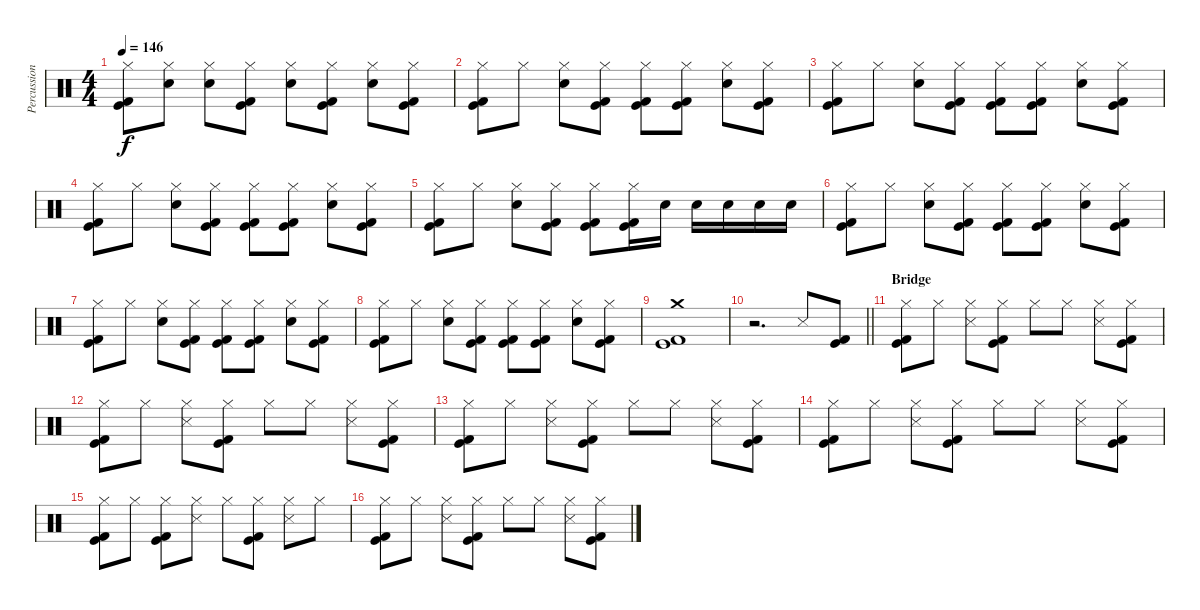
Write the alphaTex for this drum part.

\track ("Percussion" "Percussion") {instrument percussion}
\staff {score}
\articulation defaults
\ts (4 4)
\tempo 146
\clef neutral
\ks c
("Hi-Hat (closed)" "Kick (hit)" "Kick (hit) 2").8{dy f} ("Hi-Hat (closed)" "Electric Snare (hit)").8 ("Hi-Hat (closed)" "Electric Snare (hit)").8 ("Hi-Hat (closed)" "Kick (hit)" "Kick (hit) 2").8 ("Hi-Hat (closed)" "Electric Snare (hit)").8 ("Hi-Hat (closed)" "Kick (hit)" "Kick (hit) 2").8 ("Hi-Hat (closed)" "Electric Snare (hit)").8 ("Hi-Hat (closed)" "Kick (hit)" "Kick (hit) 2").8 |
("Hi-Hat (closed)" "Kick (hit)" "Kick (hit) 2").8 "Hi-Hat (closed)".8 ("Hi-Hat (closed)" "Electric Snare (hit)").8 ("Hi-Hat (closed)" "Kick (hit)" "Kick (hit) 2").8 ("Hi-Hat (closed)" "Kick (hit)" "Kick (hit) 2").8 ("Hi-Hat (closed)" "Kick (hit)" "Kick (hit) 2").8 ("Hi-Hat (closed)" "Electric Snare (hit)").8 ("Hi-Hat (closed)" "Kick (hit)" "Kick (hit) 2").8 |
("Hi-Hat (closed)" "Kick (hit)" "Kick (hit) 2").8 "Hi-Hat (closed)".8 ("Hi-Hat (closed)" "Electric Snare (hit)").8 ("Hi-Hat (closed)" "Kick (hit)" "Kick (hit) 2").8 ("Hi-Hat (closed)" "Kick (hit)" "Kick (hit) 2").8 ("Hi-Hat (closed)" "Kick (hit)" "Kick (hit) 2").8 ("Hi-Hat (closed)" "Electric Snare (hit)").8 ("Hi-Hat (closed)" "Kick (hit)" "Kick (hit) 2").8 |
("Hi-Hat (closed)" "Kick (hit)" "Kick (hit) 2").8 "Hi-Hat (closed)".8 ("Hi-Hat (closed)" "Electric Snare (hit)").8 ("Hi-Hat (closed)" "Kick (hit)" "Kick (hit) 2").8 ("Hi-Hat (closed)" "Kick (hit)" "Kick (hit) 2").8 ("Hi-Hat (closed)" "Kick (hit)" "Kick (hit) 2").8 ("Hi-Hat (closed)" "Electric Snare (hit)").8 ("Hi-Hat (closed)" "Kick (hit)" "Kick (hit) 2").8 |
("Hi-Hat (closed)" "Kick (hit)" "Kick (hit) 2").8 "Hi-Hat (closed)".8 ("Hi-Hat (closed)" "Electric Snare (hit)").8 ("Hi-Hat (closed)" "Kick (hit)" "Kick (hit) 2").8 ("Hi-Hat (closed)" "Kick (hit)" "Kick (hit) 2").8 ("Hi-Hat (closed)" "Kick (hit)" "Kick (hit) 2").16 "Electric Snare (hit)".16 "Electric Snare (hit)".16 "Electric Snare (hit)".16 "Electric Snare (hit)".16 "Electric Snare (hit)".16 |
("Hi-Hat (closed)" "Kick (hit)" "Kick (hit) 2").8 "Hi-Hat (closed)".8 ("Hi-Hat (closed)" "Electric Snare (hit)").8 ("Hi-Hat (closed)" "Kick (hit)" "Kick (hit) 2").8 ("Hi-Hat (closed)" "Kick (hit)" "Kick (hit) 2").8 ("Hi-Hat (closed)" "Kick (hit)" "Kick (hit) 2").8 ("Hi-Hat (closed)" "Electric Snare (hit)").8 ("Hi-Hat (closed)" "Kick (hit)" "Kick (hit) 2").8 |
("Hi-Hat (closed)" "Kick (hit)" "Kick (hit) 2").8 "Hi-Hat (closed)".8 ("Hi-Hat (closed)" "Electric Snare (hit)").8 ("Hi-Hat (closed)" "Kick (hit)" "Kick (hit) 2").8 ("Hi-Hat (closed)" "Kick (hit)" "Kick (hit) 2").8 ("Hi-Hat (closed)" "Kick (hit)" "Kick (hit) 2").8 ("Hi-Hat (closed)" "Electric Snare (hit)").8 ("Hi-Hat (closed)" "Kick (hit)" "Kick (hit) 2").8 |
("Hi-Hat (closed)" "Kick (hit)" "Kick (hit) 2").8 "Hi-Hat (closed)".8 ("Hi-Hat (closed)" "Electric Snare (hit)").8 ("Hi-Hat (closed)" "Kick (hit)" "Kick (hit) 2").8 ("Hi-Hat (closed)" "Kick (hit)" "Kick (hit) 2").8 ("Hi-Hat (closed)" "Kick (hit)" "Kick (hit) 2").8 ("Hi-Hat (closed)" "Electric Snare (hit)").8 ("Hi-Hat (closed)" "Kick (hit)" "Kick (hit) 2").8 |
("Crash medium (hit)" "Kick (hit)" "Kick (hit) 2").1 |
\barLineRight lightlight
r.2{d} "Snare (side stick) 3".8 ("Kick (hit)" "Kick (hit) 2").8 |
\section ("" "Bridge")
("Hi-Hat (closed)" "Kick (hit)" "Kick (hit) 2").8 "Hi-Hat (closed)".8 ("Hi-Hat (closed)" "Snare (side stick) 3").8 ("Hi-Hat (closed)" "Kick (hit)" "Kick (hit) 2").8 "Hi-Hat (closed)".8 "Hi-Hat (closed)".8 ("Hi-Hat (closed)" "Snare (side stick) 3").8 ("Hi-Hat (closed)" "Kick (hit)" "Kick (hit) 2").8 |
("Hi-Hat (closed)" "Kick (hit)" "Kick (hit) 2").8 "Hi-Hat (closed)".8 ("Hi-Hat (closed)" "Snare (side stick) 3").8 ("Hi-Hat (closed)" "Kick (hit)" "Kick (hit) 2").8 "Hi-Hat (closed)".8 "Hi-Hat (closed)".8 ("Hi-Hat (closed)" "Snare (side stick) 3").8 ("Hi-Hat (closed)" "Kick (hit)" "Kick (hit) 2").8 |
("Hi-Hat (closed)" "Kick (hit)" "Kick (hit) 2").8 "Hi-Hat (closed)".8 ("Hi-Hat (closed)" "Snare (side stick) 3").8 ("Hi-Hat (closed)" "Kick (hit)" "Kick (hit) 2").8 "Hi-Hat (closed)".8 "Hi-Hat (closed)".8 ("Hi-Hat (closed)" "Snare (side stick) 3").8 ("Hi-Hat (closed)" "Kick (hit)" "Kick (hit) 2").8 |
("Hi-Hat (closed)" "Kick (hit)" "Kick (hit) 2").8 "Hi-Hat (closed)".8 ("Hi-Hat (closed)" "Snare (side stick) 3").8 ("Hi-Hat (closed)" "Kick (hit)" "Kick (hit) 2").8 "Hi-Hat (closed)".8 "Hi-Hat (closed)".8 ("Hi-Hat (closed)" "Snare (side stick) 3").8 ("Hi-Hat (closed)" "Kick (hit)" "Kick (hit) 2").8 |
("Hi-Hat (closed)" "Kick (hit)" "Kick (hit) 2").8 "Hi-Hat (closed)".8 ("Hi-Hat (closed)" "Kick (hit)" "Kick (hit) 2").8 ("Hi-Hat (closed)" "Snare (side stick) 3").8 "Hi-Hat (closed)".8 ("Hi-Hat (closed)" "Kick (hit)" "Kick (hit) 2").8 ("Hi-Hat (closed)" "Snare (side stick) 3").8 "Hi-Hat (closed)".8 |
("Hi-Hat (closed)" "Kick (hit)" "Kick (hit) 2").8 "Hi-Hat (closed)".8 ("Hi-Hat (closed)" "Snare (side stick) 3").8 ("Hi-Hat (closed)" "Kick (hit)" "Kick (hit) 2").8 "Hi-Hat (closed)".8 "Hi-Hat (closed)".8 ("Hi-Hat (closed)" "Snare (side stick) 3").8 ("Hi-Hat (closed)" "Kick (hit)" "Kick (hit) 2").8
